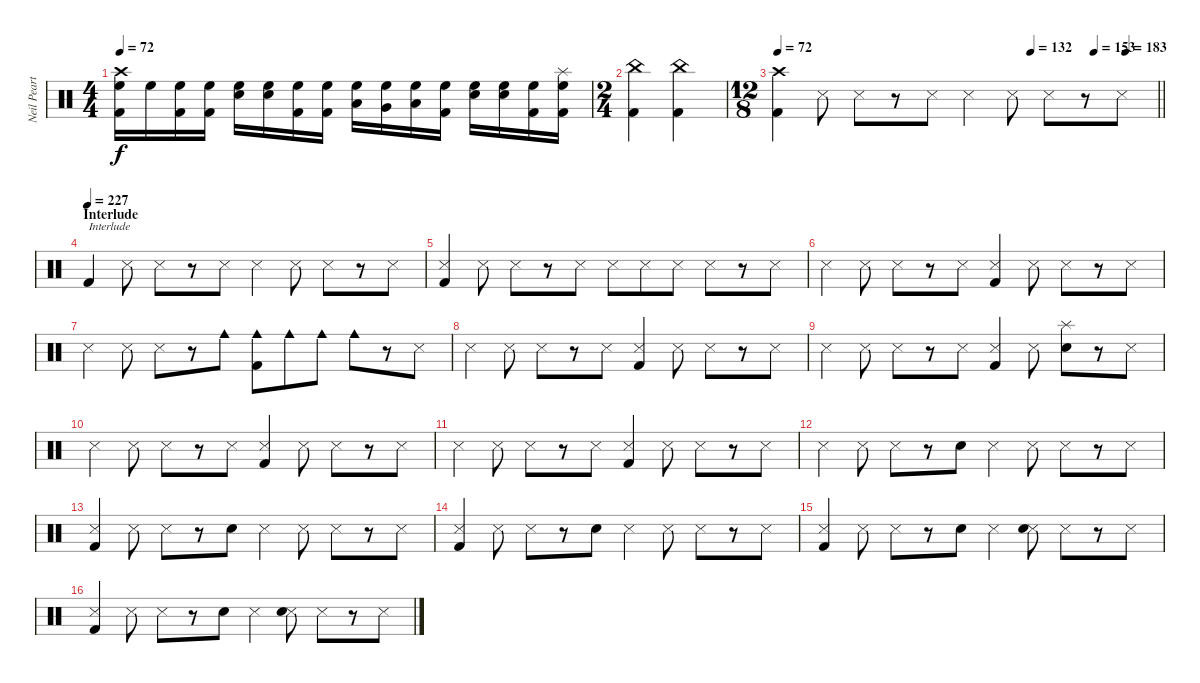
\track ("Neil Peart" "Neil Peart") {instrument percussion}
\staff {score}
\articulation defaults
\ts (4 4)
\tempo 72
\clef neutral
\ks c
("Crash high (hit)" "Kick (hit) 2" "High Floor Tom (hit)").16{dy f} "High Floor Tom (hit)".16 ("Kick (hit) 2" "High Floor Tom (hit)").16 ("Kick (hit) 2" "High Floor Tom (hit)").16 ("Electric Snare (hit)" "High Floor Tom (hit)").16 ("Electric Snare (hit)" "High Floor Tom (hit)").16 ("Kick (hit) 2" "High Floor Tom (hit)").16 ("Kick (hit) 2" "High Floor Tom (hit)").16 ("Low Floor Tom (hit)" "High Floor Tom (hit)").16 ("Very Low Tom (hit)" "High Floor Tom (hit)").16 ("Low Tom (hit)" "High Floor Tom (hit)").16 ("Kick (hit) 2" "High Floor Tom (hit)").16 ("Electric Snare (hit)" "High Floor Tom (hit)").16 ("Electric Snare (hit)" "High Floor Tom (hit)").16 ("Kick (hit) 2" "High Floor Tom (hit)").16 ("Splash (hit)" "Kick (hit) 2" "High Floor Tom (hit)").16 |
\ts (2 4)
("China (hit)" "Kick (hit) 2").4 ("China (hit)" "Kick (hit) 2").4 |
\ts (12 8)
\tempo 72
\tempo (132 0.6666666666666666)
\tempo (153 0.8333333333333334)
\tempo (183 0.9166666666666666)
\barLineRight lightlight
("Crash high (hit)" "Kick (hit) 2").4 "Snare (side stick) 3".8 "Snare (side stick) 3".8 r.8 "Snare (side stick) 3".8 "Snare (side stick) 3".4 "Snare (side stick) 3".8 "Snare (side stick) 3".8 r.8 "Snare (side stick) 3".8 |
\section ("" "Interlude")
\tempo (227)
"Kick (hit) 2".4{txt "Interlude"} "Snare (side stick) 3".8 "Snare (side stick) 3".8 r.8 "Snare (side stick) 3".8 "Snare (side stick) 3".4 "Snare (side stick) 3".8 "Snare (side stick) 3".8 r.8 "Snare (side stick) 3".8 |
("Snare (side stick) 3" "Kick (hit) 2").4 "Snare (side stick) 3".8 "Snare (side stick) 3".8 r.8 "Snare (side stick) 3".8 "Snare (side stick) 3".8 "Snare (side stick) 3".8 "Snare (side stick) 3".8 "Snare (side stick) 3".8 r.8 "Snare (side stick) 3".8 |
"Snare (side stick) 3".4 "Snare (side stick) 3".8 "Snare (side stick) 3".8 r.8 "Snare (side stick) 3".8 ("Snare (side stick) 3" "Kick (hit) 2").4 "Snare (side stick) 3".8 "Snare (side stick) 3".8 r.8 "Snare (side stick) 3".8 |
"Snare (side stick) 3".4 "Snare (side stick) 3".8 "Snare (side stick) 3".8 r.8 "Cowbell medium (hit)".8 ("Cowbell medium (hit)" "Kick (hit) 2").8 "Cowbell medium (hit)".8 "Cowbell medium (hit)".8 "Cowbell medium (hit)".8 r.8 "Snare (side stick) 3".8 |
"Snare (side stick) 3".4 "Snare (side stick) 3".8 "Snare (side stick) 3".8 r.8 "Snare (side stick) 3".8 ("Snare (side stick) 3" "Kick (hit) 2").4 "Snare (side stick) 3".8 "Snare (side stick) 3".8 r.8 "Snare (side stick) 3".8 |
"Snare (side stick) 3".4 "Snare (side stick) 3".8 "Snare (side stick) 3".8 r.8 "Snare (side stick) 3".8 ("Snare (side stick) 3" "Kick (hit) 2").4 "Snare (side stick) 3".8 ("Electric Snare (hit)" "Splash (hit)").8 r.8 "Snare (side stick) 3".8 |
"Snare (side stick) 3".4 "Snare (side stick) 3".8 "Snare (side stick) 3".8 r.8 "Snare (side stick) 3".8 ("Snare (side stick) 3" "Kick (hit) 2").4 "Snare (side stick) 3".8 "Snare (side stick) 3".8 r.8 "Snare (side stick) 3".8 |
"Snare (side stick) 3".4 "Snare (side stick) 3".8 "Snare (side stick) 3".8 r.8 "Snare (side stick) 3".8 ("Snare (side stick) 3" "Kick (hit) 2").4 "Snare (side stick) 3".8 "Snare (side stick) 3".8 r.8 "Snare (side stick) 3".8 |
"Snare (side stick) 3".4 "Snare (side stick) 3".8 "Snare (side stick) 3".8 r.8 "Electric Snare (hit)".8 "Snare (side stick) 3".4 "Snare (side stick) 3".8 "Snare (side stick) 3".8 r.8 "Snare (side stick) 3".8 |
("Snare (side stick) 3" "Kick (hit) 2").4 "Snare (side stick) 3".8 "Snare (side stick) 3".8 r.8 "Electric Snare (hit)".8 "Snare (side stick) 3".4 "Snare (side stick) 3".8 "Snare (side stick) 3".8 r.8 "Snare (side stick) 3".8 |
("Snare (side stick) 3" "Kick (hit) 2").4 "Snare (side stick) 3".8 "Snare (side stick) 3".8 r.8 "Electric Snare (hit)".8 "Snare (side stick) 3".4 "Snare (side stick) 3".8 "Snare (side stick) 3".8 r.8 "Snare (side stick) 3".8 |
("Snare (side stick) 3" "Kick (hit) 2").4 "Snare (side stick) 3".8 "Snare (side stick) 3".8 r.8 "Electric Snare (hit)".8 "Snare (side stick) 3".4 ("Snare (side stick) 3" "Electric Snare (hit)").8 "Snare (side stick) 3".8 r.8 "Snare (side stick) 3".8 |
("Snare (side stick) 3" "Kick (hit) 2").4 "Snare (side stick) 3".8 "Snare (side stick) 3".8 r.8 "Electric Snare (hit)".8 "Snare (side stick) 3".4 ("Snare (side stick) 3" "Electric Snare (hit)").8 "Snare (side stick) 3".8 r.8 "Snare (side stick) 3".8
